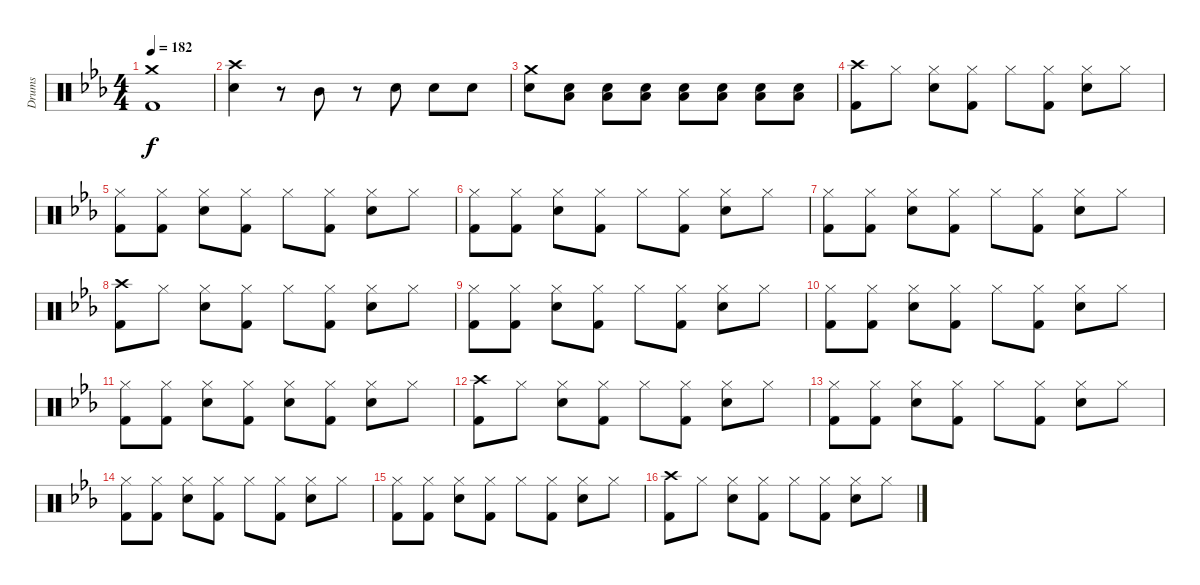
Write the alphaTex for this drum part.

\track ("Drums" "Drums") {instrument percussion}
\staff {score}
\articulation defaults
\ts (4 4)
\tempo 182
\clef neutral
\ks eb
("Crash medium (hit)" "Kick (hit) 2").1{dy f} |
("Crash high (hit)" "Snare (hit) 2").4 r.8 "Mid Tom (hit)".8 r.8 "Snare (hit) 2".8 "Snare (hit) 2".8 "Snare (hit) 2".8 |
("Crash medium (hit)" "Snare (hit) 2").8 ("Snare (hit) 2" "Low Tom (hit)").8 ("Snare (hit) 2" "Low Tom (hit)").8 ("Snare (hit) 2" "Low Tom (hit)").8 ("Snare (hit) 2" "Low Tom (hit)").8 ("Snare (hit) 2" "Low Tom (hit)").8 ("Snare (hit) 2" "Low Tom (hit)").8 ("Snare (hit) 2" "Low Tom (hit)").8 |
("Crash high (hit)" "Kick (hit) 2").8 "Hi-Hat (closed)".8 ("Hi-Hat (closed)" "Snare (hit) 2").8 ("Hi-Hat (closed)" "Kick (hit) 2").8 "Hi-Hat (closed)".8 ("Hi-Hat (closed)" "Kick (hit) 2").8 ("Hi-Hat (closed)" "Snare (hit) 2").8 "Hi-Hat (closed)".8 |
("Hi-Hat (closed)" "Kick (hit) 2").8 ("Hi-Hat (closed)" "Kick (hit) 2").8 ("Hi-Hat (closed)" "Snare (hit) 2").8 ("Hi-Hat (closed)" "Kick (hit) 2").8 "Hi-Hat (closed)".8 ("Hi-Hat (closed)" "Kick (hit) 2").8 ("Hi-Hat (closed)" "Snare (hit) 2").8 "Hi-Hat (closed)".8 |
("Hi-Hat (closed)" "Kick (hit) 2").8 ("Hi-Hat (closed)" "Kick (hit) 2").8 ("Hi-Hat (closed)" "Snare (hit) 2").8 ("Hi-Hat (closed)" "Kick (hit) 2").8 "Hi-Hat (closed)".8 ("Hi-Hat (closed)" "Kick (hit) 2").8 ("Hi-Hat (closed)" "Snare (hit) 2").8 "Hi-Hat (closed)".8 |
("Hi-Hat (closed)" "Kick (hit) 2").8 ("Hi-Hat (closed)" "Kick (hit) 2").8 ("Hi-Hat (closed)" "Snare (hit) 2").8 ("Hi-Hat (closed)" "Kick (hit) 2").8 "Hi-Hat (closed)".8 ("Hi-Hat (closed)" "Kick (hit) 2").8 ("Hi-Hat (closed)" "Snare (hit) 2").8 "Hi-Hat (closed)".8 |
("Crash high (hit)" "Kick (hit) 2").8 "Hi-Hat (closed)".8 ("Hi-Hat (closed)" "Snare (hit) 2").8 ("Hi-Hat (closed)" "Kick (hit) 2").8 "Hi-Hat (closed)".8 ("Hi-Hat (closed)" "Kick (hit) 2").8 ("Hi-Hat (closed)" "Snare (hit) 2").8 "Hi-Hat (closed)".8 |
("Hi-Hat (closed)" "Kick (hit) 2").8 ("Hi-Hat (closed)" "Kick (hit) 2").8 ("Hi-Hat (closed)" "Snare (hit) 2").8 ("Hi-Hat (closed)" "Kick (hit) 2").8 "Hi-Hat (closed)".8 ("Hi-Hat (closed)" "Kick (hit) 2").8 ("Hi-Hat (closed)" "Snare (hit) 2").8 "Hi-Hat (closed)".8 |
("Hi-Hat (closed)" "Kick (hit) 2").8 ("Hi-Hat (closed)" "Kick (hit) 2").8 ("Hi-Hat (closed)" "Snare (hit) 2").8 ("Hi-Hat (closed)" "Kick (hit) 2").8 "Hi-Hat (closed)".8 ("Hi-Hat (closed)" "Kick (hit) 2").8 ("Hi-Hat (closed)" "Snare (hit) 2").8 "Hi-Hat (closed)".8 |
("Hi-Hat (closed)" "Kick (hit) 2").8 ("Hi-Hat (closed)" "Kick (hit) 2").8 ("Hi-Hat (closed)" "Snare (hit) 2").8 ("Hi-Hat (closed)" "Kick (hit) 2").8 ("Hi-Hat (closed)" "Snare (hit) 2").8 ("Hi-Hat (closed)" "Kick (hit) 2").8 ("Hi-Hat (closed)" "Snare (hit) 2").8 "Hi-Hat (closed)".8 |
("Crash high (hit)" "Kick (hit) 2").8 "Hi-Hat (closed)".8 ("Hi-Hat (closed)" "Snare (hit) 2").8 ("Hi-Hat (closed)" "Kick (hit) 2").8 "Hi-Hat (closed)".8 ("Hi-Hat (closed)" "Kick (hit) 2").8 ("Hi-Hat (closed)" "Snare (hit) 2").8 "Hi-Hat (closed)".8 |
("Hi-Hat (closed)" "Kick (hit) 2").8 ("Hi-Hat (closed)" "Kick (hit) 2").8 ("Hi-Hat (closed)" "Snare (hit) 2").8 ("Hi-Hat (closed)" "Kick (hit) 2").8 "Hi-Hat (closed)".8 ("Hi-Hat (closed)" "Kick (hit) 2").8 ("Hi-Hat (closed)" "Snare (hit) 2").8 "Hi-Hat (closed)".8 |
("Hi-Hat (closed)" "Kick (hit) 2").8 ("Hi-Hat (closed)" "Kick (hit) 2").8 ("Hi-Hat (closed)" "Snare (hit) 2").8 ("Hi-Hat (closed)" "Kick (hit) 2").8 "Hi-Hat (closed)".8 ("Hi-Hat (closed)" "Kick (hit) 2").8 ("Hi-Hat (closed)" "Snare (hit) 2").8 "Hi-Hat (closed)".8 |
("Hi-Hat (closed)" "Kick (hit) 2").8 ("Hi-Hat (closed)" "Kick (hit) 2").8 ("Hi-Hat (closed)" "Snare (hit) 2").8 ("Hi-Hat (closed)" "Kick (hit) 2").8 "Hi-Hat (closed)".8 ("Hi-Hat (closed)" "Kick (hit) 2").8 ("Hi-Hat (closed)" "Snare (hit) 2").8 "Hi-Hat (closed)".8 |
("Crash high (hit)" "Kick (hit) 2").8 "Hi-Hat (closed)".8 ("Hi-Hat (closed)" "Snare (hit) 2").8 ("Hi-Hat (closed)" "Kick (hit) 2").8 "Hi-Hat (closed)".8 ("Hi-Hat (closed)" "Kick (hit) 2").8 ("Hi-Hat (closed)" "Snare (hit) 2").8 "Hi-Hat (closed)".8
